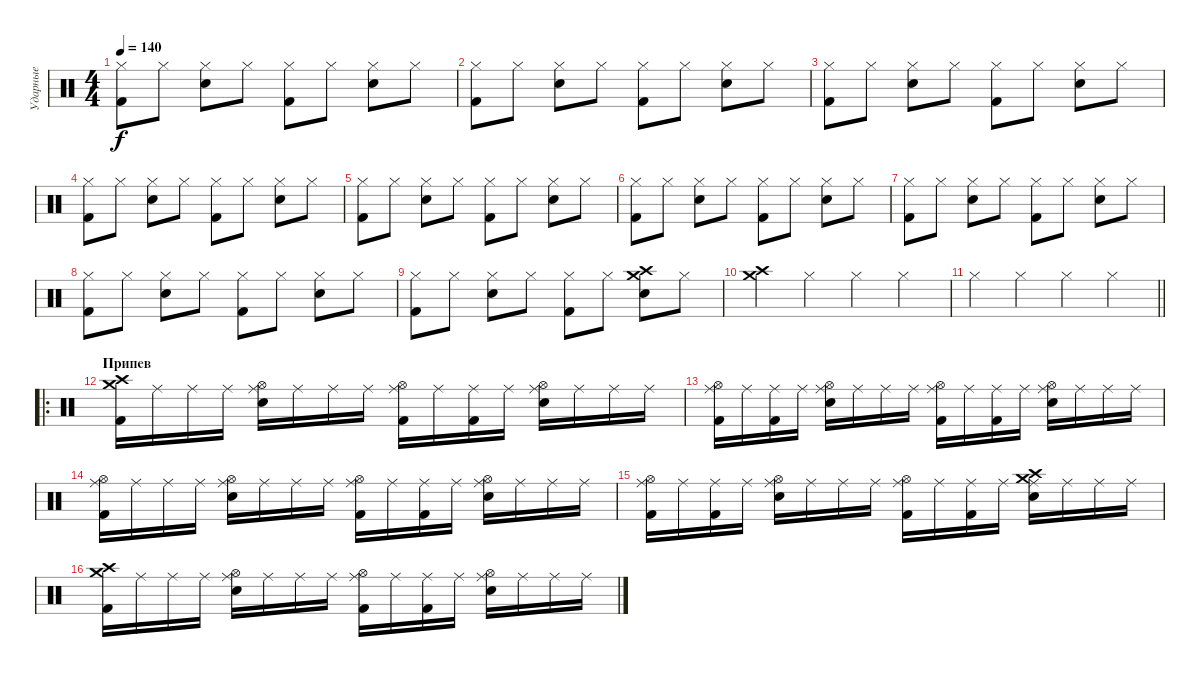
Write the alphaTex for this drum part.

\track ("Ударные" "Ударные") {instrument percussion}
\staff {score}
\articulation defaults
\ts (4 4)
\tempo 140
\clef neutral
\ks c
("Hi-Hat (closed)" "Kick (hit) 2").8{dy f} "Hi-Hat (closed)".8 ("Hi-Hat (closed)" "Snare (hit) 2").8 "Hi-Hat (closed)".8 ("Hi-Hat (closed)" "Kick (hit) 2").8 "Hi-Hat (closed)".8 ("Hi-Hat (closed)" "Snare (hit) 2").8 "Hi-Hat (closed)".8 |
("Hi-Hat (closed)" "Kick (hit) 2").8 "Hi-Hat (closed)".8 ("Hi-Hat (closed)" "Snare (hit) 2").8 "Hi-Hat (closed)".8 ("Hi-Hat (closed)" "Kick (hit) 2").8 "Hi-Hat (closed)".8 ("Hi-Hat (closed)" "Snare (hit) 2").8 "Hi-Hat (closed)".8 |
("Hi-Hat (closed)" "Kick (hit) 2").8 "Hi-Hat (closed)".8 ("Hi-Hat (closed)" "Snare (hit) 2").8 "Hi-Hat (closed)".8 ("Hi-Hat (closed)" "Kick (hit) 2").8 "Hi-Hat (closed)".8 ("Hi-Hat (closed)" "Snare (hit) 2").8 "Hi-Hat (closed)".8 |
("Hi-Hat (closed)" "Kick (hit) 2").8 "Hi-Hat (closed)".8 ("Hi-Hat (closed)" "Snare (hit) 2").8 "Hi-Hat (closed)".8 ("Hi-Hat (closed)" "Kick (hit) 2").8 "Hi-Hat (closed)".8 ("Hi-Hat (closed)" "Snare (hit) 2").8 "Hi-Hat (closed)".8 |
("Hi-Hat (closed)" "Kick (hit) 2").8 "Hi-Hat (closed)".8 ("Hi-Hat (closed)" "Snare (hit) 2").8 "Hi-Hat (closed)".8 ("Hi-Hat (closed)" "Kick (hit) 2").8 "Hi-Hat (closed)".8 ("Hi-Hat (closed)" "Snare (hit) 2").8 "Hi-Hat (closed)".8 |
("Hi-Hat (closed)" "Kick (hit) 2").8 "Hi-Hat (closed)".8 ("Hi-Hat (closed)" "Snare (hit) 2").8 "Hi-Hat (closed)".8 ("Hi-Hat (closed)" "Kick (hit) 2").8 "Hi-Hat (closed)".8 ("Hi-Hat (closed)" "Snare (hit) 2").8 "Hi-Hat (closed)".8 |
("Hi-Hat (closed)" "Kick (hit) 2").8 "Hi-Hat (closed)".8 ("Hi-Hat (closed)" "Snare (hit) 2").8 "Hi-Hat (closed)".8 ("Hi-Hat (closed)" "Kick (hit) 2").8 "Hi-Hat (closed)".8 ("Hi-Hat (closed)" "Snare (hit) 2").8 "Hi-Hat (closed)".8 |
("Hi-Hat (closed)" "Kick (hit) 2").8 "Hi-Hat (closed)".8 ("Hi-Hat (closed)" "Snare (hit) 2").8 "Hi-Hat (closed)".8 ("Hi-Hat (closed)" "Kick (hit) 2").8 "Hi-Hat (closed)".8 ("Hi-Hat (closed)" "Snare (hit) 2").8 "Hi-Hat (closed)".8 |
("Hi-Hat (closed)" "Kick (hit) 2").8 "Hi-Hat (closed)".8 ("Hi-Hat (closed)" "Snare (hit) 2").8 "Hi-Hat (closed)".8 ("Hi-Hat (closed)" "Kick (hit) 2").8 "Hi-Hat (closed)".8 ("Crash medium (hit)" "Crash high (hit)" "Snare (hit) 2").8 "Hi-Hat (closed)".8 |
("Crash medium (hit)" "Crash high (hit)").4 "Hi-Hat (closed)".4 "Hi-Hat (closed)".4 "Hi-Hat (closed)".4 |
\barLineRight lightlight "Hi-Hat (closed)".4 "Hi-Hat (closed)".4 "Hi-Hat (closed)".4 "Hi-Hat (closed)".4
|
\ro
\section ("" "Припев")
("Crash medium (hit)" "Crash high (hit)" "Kick (hit) 2").16 "Ride (middle)".16 "Ride (middle)".16 "Ride (middle)".16 ("Ride (middle)" "Hi-Hat (open)" "Snare (hit) 2").16 "Ride (middle)".16 "Ride (middle)".16 "Ride (middle)".16 ("Ride (middle)" "Hi-Hat (open)" "Kick (hit) 2").16 "Ride (middle)".16 ("Ride (middle)" "Kick (hit) 2").16 "Ride (middle)".16 ("Ride (middle)" "Hi-Hat (open)" "Snare (hit) 2").16 "Ride (middle)".16 "Ride (middle)".16 "Ride (middle)".16 |
("Ride (middle)" "Hi-Hat (open)" "Kick (hit) 2").16 "Ride (middle)".16 ("Ride (middle)" "Kick (hit) 2").16 "Ride (middle)".16 ("Ride (middle)" "Hi-Hat (open)" "Snare (hit) 2").16 "Ride (middle)".16 "Ride (middle)".16 "Ride (middle)".16 ("Ride (middle)" "Hi-Hat (open)" "Kick (hit) 2").16 "Ride (middle)".16 ("Ride (middle)" "Kick (hit) 2").16 "Ride (middle)".16 ("Ride (middle)" "Hi-Hat (open)" "Snare (hit) 2").16 "Ride (middle)".16 "Ride (middle)".16 "Ride (middle)".16 |
("Ride (middle)" "Hi-Hat (open)" "Kick (hit) 2").16 "Ride (middle)".16 "Ride (middle)".16 "Ride (middle)".16 ("Ride (middle)" "Hi-Hat (open)" "Snare (hit) 2").16 "Ride (middle)".16 "Ride (middle)".16 "Ride (middle)".16 ("Ride (middle)" "Hi-Hat (open)" "Kick (hit) 2").16 "Ride (middle)".16 ("Ride (middle)" "Kick (hit) 2").16 "Ride (middle)".16 ("Ride (middle)" "Hi-Hat (open)" "Snare (hit) 2").16 "Ride (middle)".16 "Ride (middle)".16 "Ride (middle)".16 |
("Ride (middle)" "Hi-Hat (open)" "Kick (hit) 2").16 "Ride (middle)".16 ("Ride (middle)" "Kick (hit) 2").16 "Ride (middle)".16 ("Ride (middle)" "Hi-Hat (open)" "Snare (hit) 2").16 "Ride (middle)".16 "Ride (middle)".16 "Ride (middle)".16 ("Ride (middle)" "Hi-Hat (open)" "Kick (hit) 2").16 "Ride (middle)".16 ("Ride (middle)" "Kick (hit) 2").16 "Ride (middle)".16 ("Crash medium (hit)" "Crash high (hit)" "Ride (middle)" "Snare (hit) 2").16 "Ride (middle)".16 "Ride (middle)".16 "Ride (middle)".16 |
("Crash medium (hit)" "Crash high (hit)" "Kick (hit) 2").16 "Ride (middle)".16 "Ride (middle)".16 "Ride (middle)".16 ("Ride (middle)" "Hi-Hat (open)" "Snare (hit) 2").16 "Ride (middle)".16 "Ride (middle)".16 "Ride (middle)".16 ("Ride (middle)" "Hi-Hat (open)" "Kick (hit) 2").16 "Ride (middle)".16 ("Ride (middle)" "Kick (hit) 2").16 "Ride (middle)".16 ("Ride (middle)" "Hi-Hat (open)" "Snare (hit) 2").16 "Ride (middle)".16 "Ride (middle)".16 "Ride (middle)".16
